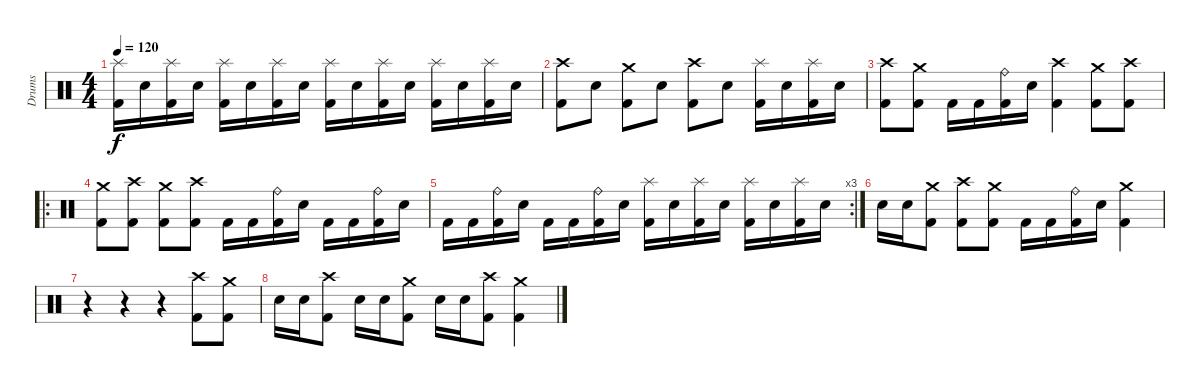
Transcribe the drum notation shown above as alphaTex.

\track ("Drums" "Drums") {instrument percussion}
\staff {score}
\articulation defaults
\ts (4 4)
\tempo 120
\clef neutral
\ks c
("Splash (hit)" "Kick (hit) 2").16{dy f} "Electric Snare (hit)".16 ("Splash (hit)" "Kick (hit) 2").16 "Electric Snare (hit)".16 ("Splash (hit)" "Kick (hit) 2").16 "Electric Snare (hit)".16 ("Splash (hit)" "Kick (hit) 2").16 "Electric Snare (hit)".16 ("Splash (hit)" "Kick (hit) 2").16 "Electric Snare (hit)".16 ("Splash (hit)" "Kick (hit) 2").16 "Electric Snare (hit)".16 ("Splash (hit)" "Kick (hit) 2").16 "Electric Snare (hit)".16 ("Splash (hit)" "Kick (hit) 2").16 "Electric Snare (hit)".16 |
("Crash high (hit)" "Kick (hit) 2").8 "Electric Snare (hit)".8 ("Crash medium (hit)" "Kick (hit) 2").8 "Electric Snare (hit)".8 ("Crash high (hit)" "Kick (hit) 2").8 "Electric Snare (hit)".8 ("Splash (hit)" "Kick (hit) 2").16 "Electric Snare (hit)".16 ("Splash (hit)" "Kick (hit) 2").16 "Electric Snare (hit)".16 |
("Crash high (hit)" "Kick (hit) 2").8 ("Crash medium (hit)" "Kick (hit) 2").8 "Kick (hit) 2".16 "Kick (hit) 2".16 ("Ride (bell)" "Kick (hit) 2").16 "Electric Snare (hit)".16 ("Crash high (hit)" "Kick (hit) 2").4 ("Crash medium (hit)" "Kick (hit) 2").8 ("Crash high (hit)" "Kick (hit) 2").8 |
\ro
("Crash medium (hit)" "Kick (hit) 2").8 ("Crash high (hit)" "Kick (hit) 2").8 ("Crash medium (hit)" "Kick (hit) 2").8 ("Crash high (hit)" "Kick (hit) 2").8 "Kick (hit) 2".16 "Kick (hit) 2".16 ("Ride (bell)" "Kick (hit) 2").16 "Electric Snare (hit)".16 "Kick (hit) 2".16 "Kick (hit) 2".16 ("Ride (bell)" "Kick (hit) 2").16 "Electric Snare (hit)".16 |
\rc 3 "Kick (hit) 2".16 "Kick (hit) 2".16
("Ride (bell)" "Kick (hit) 2").16 "Electric Snare (hit)".16 "Kick (hit) 2".16 "Kick (hit) 2".16 ("Ride (bell)" "Kick (hit) 2").16 "Electric Snare (hit)".16 ("Splash (hit)" "Kick (hit) 2").16 "Electric Snare (hit)".16 ("Splash (hit)" "Kick (hit) 2").16 "Electric Snare (hit)".16 ("Splash (hit)" "Kick (hit) 2").16 "Electric Snare (hit)".16 ("Splash (hit)" "Kick (hit) 2").16 "Electric Snare (hit)".16 |
"Electric Snare (hit)".16 "Electric Snare (hit)".16 ("Crash medium (hit)" "Kick (hit) 2").8 ("Crash high (hit)" "Kick (hit) 2").8 ("Crash medium (hit)" "Kick (hit) 2").8 "Kick (hit) 2".16 "Kick (hit) 2".16 ("Ride (bell)" "Kick (hit) 2").16 "Electric Snare (hit)".16 ("Crash medium (hit)" "Kick (hit) 2").4 |
r.4 r.4 r.4 ("Crash high (hit)" "Kick (hit) 2").8 ("Crash medium (hit)" "Kick (hit) 2").8 |
"Electric Snare (hit)".16 "Electric Snare (hit)".16 ("Crash high (hit)" "Kick (hit) 2").8 "Electric Snare (hit)".16 "Electric Snare (hit)".16 ("Crash medium (hit)" "Kick (hit) 2").8 "Electric Snare (hit)".16 "Electric Snare (hit)".16 ("Crash high (hit)" "Kick (hit) 2").8 ("Crash medium (hit)" "Kick (hit) 2").4
